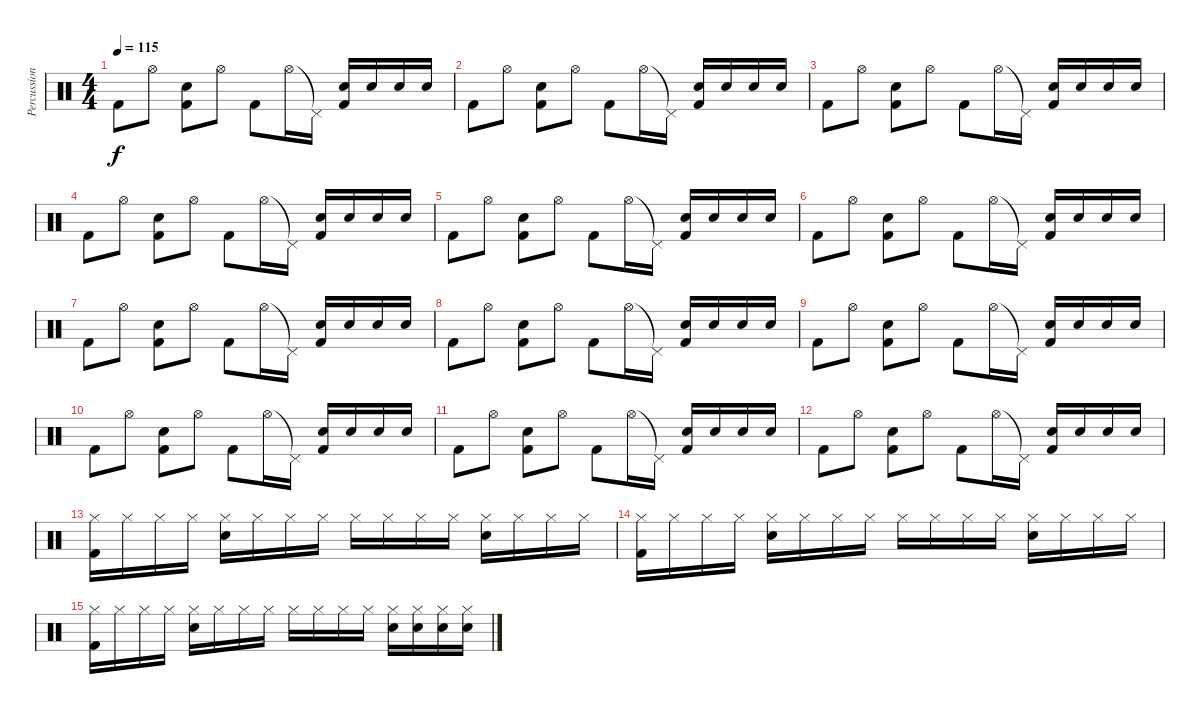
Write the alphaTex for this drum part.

\track ("Percussion" "Percussion") {instrument percussion}
\staff {score}
\articulation defaults
\ts (4 4)
\tempo 115
\clef neutral
\ks c "Kick (hit) 2".8{dy f} "Hi-Hat (open)".8
("Electric Snare (hit)" "Kick (hit) 2").8 "Hi-Hat (open)".8 "Kick (hit) 2".8 "Hi-Hat (open)".16 "Pedal Hi-Hat (hit)"{t}.16 ("Electric Snare (hit)" "Kick (hit) 2").16 "Electric Snare (hit)".16 "Electric Snare (hit)".16 "Electric Snare (hit)".16 |
"Kick (hit) 2".8 "Hi-Hat (open)".8 ("Electric Snare (hit)" "Kick (hit) 2").8 "Hi-Hat (open)".8 "Kick (hit) 2".8 "Hi-Hat (open)".16 "Pedal Hi-Hat (hit)"{t}.16 ("Electric Snare (hit)" "Kick (hit) 2").16 "Electric Snare (hit)".16 "Electric Snare (hit)".16 "Electric Snare (hit)".16 |
"Kick (hit) 2".8 "Hi-Hat (open)".8 ("Electric Snare (hit)" "Kick (hit) 2").8 "Hi-Hat (open)".8 "Kick (hit) 2".8 "Hi-Hat (open)".16 "Pedal Hi-Hat (hit)"{t}.16 ("Electric Snare (hit)" "Kick (hit) 2").16 "Electric Snare (hit)".16 "Electric Snare (hit)".16 "Electric Snare (hit)".16 |
"Kick (hit) 2".8 "Hi-Hat (open)".8 ("Electric Snare (hit)" "Kick (hit) 2").8 "Hi-Hat (open)".8 "Kick (hit) 2".8 "Hi-Hat (open)".16 "Pedal Hi-Hat (hit)"{t}.16 ("Electric Snare (hit)" "Kick (hit) 2").16 "Electric Snare (hit)".16 "Electric Snare (hit)".16 "Electric Snare (hit)".16 |
"Kick (hit) 2".8 "Hi-Hat (open)".8 ("Electric Snare (hit)" "Kick (hit) 2").8 "Hi-Hat (open)".8 "Kick (hit) 2".8 "Hi-Hat (open)".16 "Pedal Hi-Hat (hit)"{t}.16 ("Electric Snare (hit)" "Kick (hit) 2").16 "Electric Snare (hit)".16 "Electric Snare (hit)".16 "Electric Snare (hit)".16 |
"Kick (hit) 2".8 "Hi-Hat (open)".8 ("Electric Snare (hit)" "Kick (hit) 2").8 "Hi-Hat (open)".8 "Kick (hit) 2".8 "Hi-Hat (open)".16 "Pedal Hi-Hat (hit)"{t}.16 ("Electric Snare (hit)" "Kick (hit) 2").16 "Electric Snare (hit)".16 "Electric Snare (hit)".16 "Electric Snare (hit)".16 |
"Kick (hit) 2".8 "Hi-Hat (open)".8 ("Electric Snare (hit)" "Kick (hit) 2").8 "Hi-Hat (open)".8 "Kick (hit) 2".8 "Hi-Hat (open)".16 "Pedal Hi-Hat (hit)"{t}.16 ("Electric Snare (hit)" "Kick (hit) 2").16 "Electric Snare (hit)".16 "Electric Snare (hit)".16 "Electric Snare (hit)".16 |
"Kick (hit) 2".8 "Hi-Hat (open)".8 ("Electric Snare (hit)" "Kick (hit) 2").8 "Hi-Hat (open)".8 "Kick (hit) 2".8 "Hi-Hat (open)".16 "Pedal Hi-Hat (hit)"{t}.16 ("Electric Snare (hit)" "Kick (hit) 2").16 "Electric Snare (hit)".16 "Electric Snare (hit)".16 "Electric Snare (hit)".16 |
"Kick (hit) 2".8 "Hi-Hat (open)".8 ("Electric Snare (hit)" "Kick (hit) 2").8 "Hi-Hat (open)".8 "Kick (hit) 2".8 "Hi-Hat (open)".16 "Pedal Hi-Hat (hit)"{t}.16 ("Electric Snare (hit)" "Kick (hit) 2").16 "Electric Snare (hit)".16 "Electric Snare (hit)".16 "Electric Snare (hit)".16 |
"Kick (hit) 2".8 "Hi-Hat (open)".8 ("Electric Snare (hit)" "Kick (hit) 2").8 "Hi-Hat (open)".8 "Kick (hit) 2".8 "Hi-Hat (open)".16 "Pedal Hi-Hat (hit)"{t}.16 ("Electric Snare (hit)" "Kick (hit) 2").16 "Electric Snare (hit)".16 "Electric Snare (hit)".16 "Electric Snare (hit)".16 |
"Kick (hit) 2".8 "Hi-Hat (open)".8 ("Electric Snare (hit)" "Kick (hit) 2").8 "Hi-Hat (open)".8 "Kick (hit) 2".8 "Hi-Hat (open)".16 "Pedal Hi-Hat (hit)"{t}.16 ("Electric Snare (hit)" "Kick (hit) 2").16 "Electric Snare (hit)".16 "Electric Snare (hit)".16 "Electric Snare (hit)".16 |
"Kick (hit) 2".8 "Hi-Hat (open)".8 ("Electric Snare (hit)" "Kick (hit) 2").8 "Hi-Hat (open)".8 "Kick (hit) 2".8 "Hi-Hat (open)".16 "Pedal Hi-Hat (hit)"{t}.16 ("Electric Snare (hit)" "Kick (hit) 2").16 "Electric Snare (hit)".16 "Electric Snare (hit)".16 "Electric Snare (hit)".16 |
("Hi-Hat (closed)" "Kick (hit) 2").16 "Hi-Hat (closed)".16 "Hi-Hat (closed)".16 "Hi-Hat (closed)".16 ("Hi-Hat (closed)" "Snare (hit) 2").16 "Hi-Hat (closed)".16 "Hi-Hat (closed)".16 "Hi-Hat (closed)".16 "Hi-Hat (closed)".16 "Hi-Hat (closed)".16 "Hi-Hat (closed)".16 "Hi-Hat (closed)".16 ("Hi-Hat (closed)" "Snare (hit) 2").16 "Hi-Hat (closed)".16 "Hi-Hat (closed)".16 "Hi-Hat (closed)".16 |
("Hi-Hat (closed)" "Kick (hit) 2").16 "Hi-Hat (closed)".16 "Hi-Hat (closed)".16 "Hi-Hat (closed)".16 ("Hi-Hat (closed)" "Snare (hit) 2").16 "Hi-Hat (closed)".16 "Hi-Hat (closed)".16 "Hi-Hat (closed)".16 "Hi-Hat (closed)".16 "Hi-Hat (closed)".16 "Hi-Hat (closed)".16 "Hi-Hat (closed)".16 ("Hi-Hat (closed)" "Snare (hit) 2").16 "Hi-Hat (closed)".16 "Hi-Hat (closed)".16 "Hi-Hat (closed)".16 |
("Hi-Hat (closed)" "Kick (hit) 2").16 "Hi-Hat (closed)".16 "Hi-Hat (closed)".16 "Hi-Hat (closed)".16 ("Hi-Hat (closed)" "Snare (hit) 2").16 "Hi-Hat (closed)".16 "Hi-Hat (closed)".16 "Hi-Hat (closed)".16 "Hi-Hat (closed)".16 "Hi-Hat (closed)".16 "Hi-Hat (closed)".16 "Hi-Hat (closed)".16 ("Hi-Hat (closed)" "Snare (hit) 2").16 ("Hi-Hat (closed)" "Snare (hit) 2").16 ("Hi-Hat (closed)" "Snare (hit) 2").16 ("Hi-Hat (closed)" "Snare (hit) 2").16
